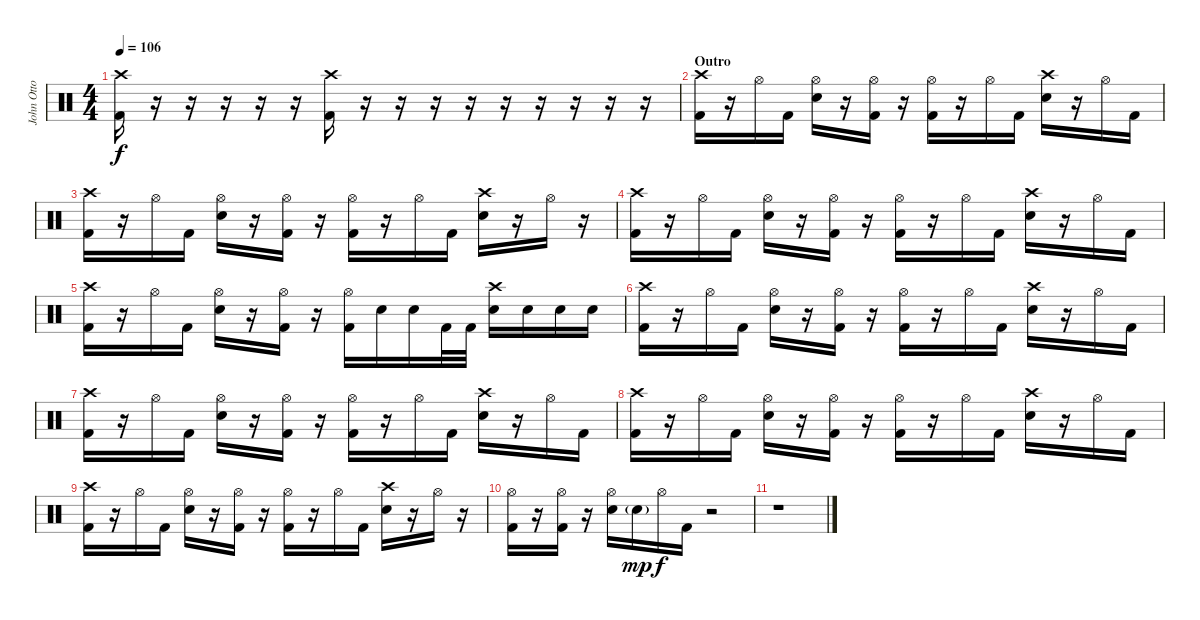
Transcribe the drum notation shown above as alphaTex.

\track ("John Otto" "John Otto") {instrument percussion}
\staff {score}
\articulation defaults
\ts (4 4)
\tempo 106
\clef neutral
\ks c
("Crash high (hit)" "Kick (hit) 2").16{dy f} r.16 r.16 r.16 r.16 r.16 ("Crash high (hit)" "Kick (hit) 2").16 r.16 r.16 r.16 r.16 r.16 r.16 r.16 r.16 r.16 |
\section ("" "Outro")
("Crash high (hit)" "Kick (hit) 2").16 r.16 "Hi-Hat (open)".16 "Kick (hit) 2".16 ("Hi-Hat (open)" "Snare (hit) 2").16 r.16 ("Hi-Hat (open)" "Kick (hit) 2").16 r.16 ("Hi-Hat (open)" "Kick (hit) 2").16 r.16 "Hi-Hat (open)".16 "Kick (hit) 2".16 ("Crash high (hit)" "Snare (hit) 2").16 r.16 "Hi-Hat (open)".16 "Kick (hit) 2".16 |
("Crash high (hit)" "Kick (hit) 2").16 r.16 "Hi-Hat (open)".16 "Kick (hit) 2".16 ("Hi-Hat (open)" "Snare (hit) 2").16 r.16 ("Hi-Hat (open)" "Kick (hit) 2").16 r.16 ("Hi-Hat (open)" "Kick (hit) 2").16 r.16 "Hi-Hat (open)".16 "Kick (hit) 2".16 ("Crash high (hit)" "Snare (hit) 2").16 r.16 "Hi-Hat (open)".16 r.16 |
("Crash high (hit)" "Kick (hit) 2").16 r.16 "Hi-Hat (open)".16 "Kick (hit) 2".16 ("Hi-Hat (open)" "Snare (hit) 2").16 r.16 ("Hi-Hat (open)" "Kick (hit) 2").16 r.16 ("Hi-Hat (open)" "Kick (hit) 2").16 r.16 "Hi-Hat (open)".16 "Kick (hit) 2".16 ("Crash high (hit)" "Snare (hit) 2").16 r.16 "Hi-Hat (open)".16 "Kick (hit) 2".16 |
("Crash high (hit)" "Kick (hit) 2").16 r.16 "Hi-Hat (open)".16 "Kick (hit) 2".16 ("Hi-Hat (open)" "Snare (hit) 2").16 r.16 ("Hi-Hat (open)" "Kick (hit) 2").16 r.16 ("Hi-Hat (open)" "Kick (hit) 2").16 "Snare (hit) 2".16 "Snare (hit) 2".16 "Kick (hit) 2".32 "Kick (hit) 2".32 ("Crash high (hit)" "Snare (hit) 2").16 "Snare (hit) 2".16 "Snare (hit) 2".16 "Snare (hit) 2".16 |
("Crash high (hit)" "Kick (hit) 2").16 r.16 "Hi-Hat (open)".16 "Kick (hit) 2".16 ("Hi-Hat (open)" "Snare (hit) 2").16 r.16 ("Hi-Hat (open)" "Kick (hit) 2").16 r.16 ("Hi-Hat (open)" "Kick (hit) 2").16 r.16 "Hi-Hat (open)".16 "Kick (hit) 2".16 ("Crash high (hit)" "Snare (hit) 2").16 r.16 "Hi-Hat (open)".16 "Kick (hit) 2".16 |
("Crash high (hit)" "Kick (hit) 2").16 r.16 "Hi-Hat (open)".16 "Kick (hit) 2".16 ("Hi-Hat (open)" "Snare (hit) 2").16 r.16 ("Hi-Hat (open)" "Kick (hit) 2").16 r.16 ("Hi-Hat (open)" "Kick (hit) 2").16 r.16 "Hi-Hat (open)".16 "Kick (hit) 2".16 ("Crash high (hit)" "Snare (hit) 2").16 r.16 "Hi-Hat (open)".16 "Kick (hit) 2".16 |
("Crash high (hit)" "Kick (hit) 2").16 r.16 "Hi-Hat (open)".16 "Kick (hit) 2".16 ("Hi-Hat (open)" "Snare (hit) 2").16 r.16 ("Hi-Hat (open)" "Kick (hit) 2").16 r.16 ("Hi-Hat (open)" "Kick (hit) 2").16 r.16 "Hi-Hat (open)".16 "Kick (hit) 2".16 ("Crash high (hit)" "Snare (hit) 2").16 r.16 "Hi-Hat (open)".16 "Kick (hit) 2".16 |
("Crash high (hit)" "Kick (hit) 2").16 r.16 "Hi-Hat (open)".16 "Kick (hit) 2".16 ("Hi-Hat (open)" "Snare (hit) 2").16 r.16 ("Hi-Hat (open)" "Kick (hit) 2").16 r.16 ("Hi-Hat (open)" "Kick (hit) 2").16 r.16 "Hi-Hat (open)".16 "Kick (hit) 2".16 ("Crash high (hit)" "Snare (hit) 2").16 r.16 "Hi-Hat (open)".16 r.16 |
("Hi-Hat (open)" "Kick (hit) 2").16 r.16 ("Hi-Hat (open)" "Kick (hit) 2").16 r.16 ("Hi-Hat (open)" "Snare (hit) 2").16 "Snare (hit) 2"{g}.16{dy mp} "Hi-Hat (open)".16{dy f} "Kick (hit) 2".16 r.2 |
r.1
